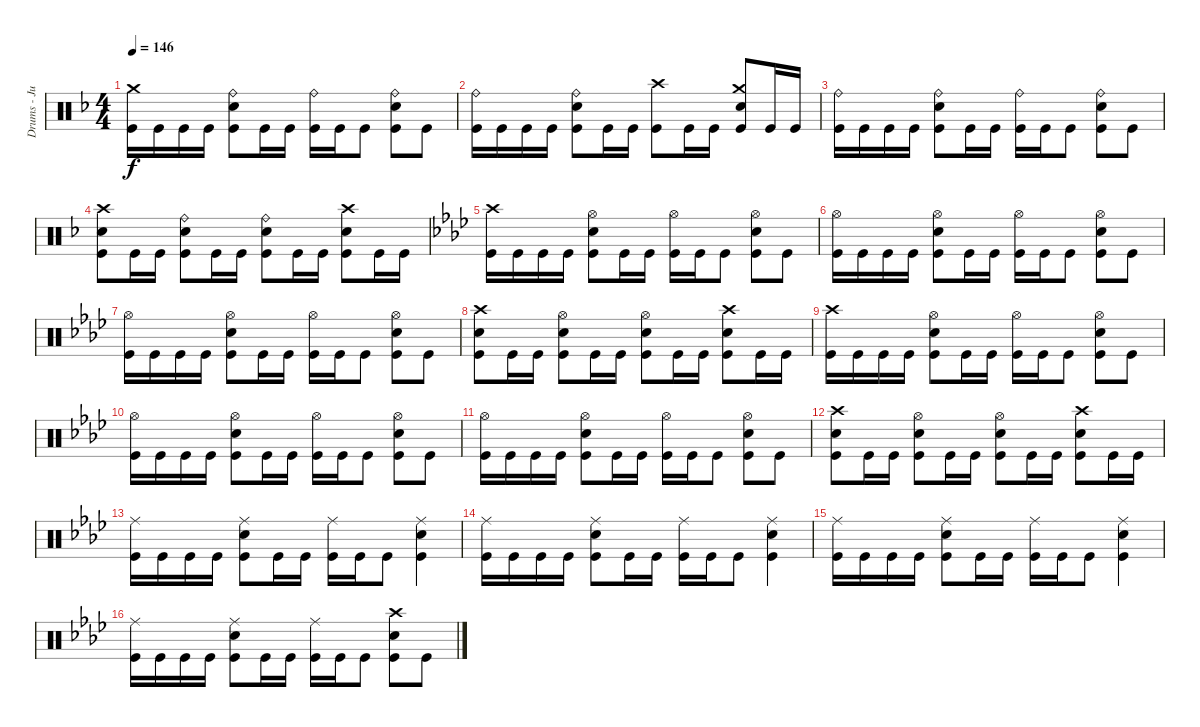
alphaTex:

\track ("Drums - Jukka" "Drums - Ju") {instrument percussion}
\staff {score}
\articulation defaults
\ts (4 4)
\tempo 146
\clef neutral
\ks dminor
("Kick (hit)" "Crash medium (hit)").16{dy f} "Kick (hit)".16 "Kick (hit)".16 "Kick (hit)".16 ("Kick (hit)" "Snare (hit) 2" "Ride (bell)").8 "Kick (hit)".16 "Kick (hit)".16 ("Kick (hit)" "Ride (bell)").16 "Kick (hit)".16 "Kick (hit)".8 ("Kick (hit)" "Snare (hit) 2" "Ride (bell)").8 "Kick (hit)".8 |
("Kick (hit)" "Ride (bell)").16 "Kick (hit)".16 "Kick (hit)".16 "Kick (hit)".16 ("Kick (hit)" "Snare (hit) 2" "Ride (bell)").8 "Kick (hit)".16 "Kick (hit)".16 ("Kick (hit)" "Crash high (hit)").8 "Kick (hit)".16 "Kick (hit)".16 ("Kick (hit)" "Snare (hit) 2" "Crash medium (hit)").8 "Kick (hit)".16 "Kick (hit)".16 |
("Kick (hit)" "Ride (bell)").16 "Kick (hit)".16 "Kick (hit)".16 "Kick (hit)".16 ("Kick (hit)" "Snare (hit) 2" "Ride (bell)").8 "Kick (hit)".16 "Kick (hit)".16 ("Kick (hit)" "Ride (bell)").16 "Kick (hit)".16 "Kick (hit)".8 ("Kick (hit)" "Snare (hit) 2" "Ride (bell)").8 "Kick (hit)".8 |
("Kick (hit)" "Crash high (hit)" "Snare (hit) 2").8 "Kick (hit)".16 "Kick (hit)".16 ("Kick (hit)" "Snare (hit) 2" "Ride (bell)").8 "Kick (hit)".16 "Kick (hit)".16 ("Kick (hit)" "Snare (hit) 2" "Ride (bell)").8 "Kick (hit)".16 "Kick (hit)".16 ("Kick (hit)" "Snare (hit) 2" "Crash high (hit)").8 "Kick (hit)".16 "Kick (hit)".16 |
\ks fminor
("Kick (hit)" "Crash high (hit)").16 "Kick (hit)".16 "Kick (hit)".16 "Kick (hit)".16 ("Kick (hit)" "Snare (hit) 2" "Hi-Hat (open)").8 "Kick (hit)".16 "Kick (hit)".16 ("Kick (hit)" "Hi-Hat (open)").16 "Kick (hit)".16 "Kick (hit)".8 ("Kick (hit)" "Snare (hit) 2" "Hi-Hat (open)").8 "Kick (hit)".8 |
("Kick (hit)" "Hi-Hat (open)").16 "Kick (hit)".16 "Kick (hit)".16 "Kick (hit)".16 ("Kick (hit)" "Snare (hit) 2" "Hi-Hat (open)").8 "Kick (hit)".16 "Kick (hit)".16 ("Kick (hit)" "Hi-Hat (open)").16 "Kick (hit)".16 "Kick (hit)".8 ("Kick (hit)" "Snare (hit) 2" "Hi-Hat (open)").8 "Kick (hit)".8 |
("Kick (hit)" "Hi-Hat (open)").16 "Kick (hit)".16 "Kick (hit)".16 "Kick (hit)".16 ("Kick (hit)" "Snare (hit) 2" "Hi-Hat (open)").8 "Kick (hit)".16 "Kick (hit)".16 ("Kick (hit)" "Hi-Hat (open)").16 "Kick (hit)".16 "Kick (hit)".8 ("Kick (hit)" "Snare (hit) 2" "Hi-Hat (open)").8 "Kick (hit)".8 |
("Kick (hit)" "Crash high (hit)" "Snare (hit) 2").8 "Kick (hit)".16 "Kick (hit)".16 ("Kick (hit)" "Snare (hit) 2" "Hi-Hat (open)").8 "Kick (hit)".16 "Kick (hit)".16 ("Kick (hit)" "Snare (hit) 2" "Hi-Hat (open)").8 "Kick (hit)".16 "Kick (hit)".16 ("Kick (hit)" "Snare (hit) 2" "Crash high (hit)").8 "Kick (hit)".16 "Kick (hit)".16 |
("Kick (hit)" "Crash high (hit)").16 "Kick (hit)".16 "Kick (hit)".16 "Kick (hit)".16 ("Kick (hit)" "Snare (hit) 2" "Hi-Hat (open)").8 "Kick (hit)".16 "Kick (hit)".16 ("Kick (hit)" "Hi-Hat (open)").16 "Kick (hit)".16 "Kick (hit)".8 ("Kick (hit)" "Snare (hit) 2" "Hi-Hat (open)").8 "Kick (hit)".8 |
("Kick (hit)" "Hi-Hat (open)").16 "Kick (hit)".16 "Kick (hit)".16 "Kick (hit)".16 ("Kick (hit)" "Snare (hit) 2" "Hi-Hat (open)").8 "Kick (hit)".16 "Kick (hit)".16 ("Kick (hit)" "Hi-Hat (open)").16 "Kick (hit)".16 "Kick (hit)".8 ("Kick (hit)" "Snare (hit) 2" "Hi-Hat (open)").8 "Kick (hit)".8 |
("Kick (hit)" "Hi-Hat (open)").16 "Kick (hit)".16 "Kick (hit)".16 "Kick (hit)".16 ("Kick (hit)" "Snare (hit) 2" "Hi-Hat (open)").8 "Kick (hit)".16 "Kick (hit)".16 ("Kick (hit)" "Hi-Hat (open)").16 "Kick (hit)".16 "Kick (hit)".8 ("Kick (hit)" "Snare (hit) 2" "Hi-Hat (open)").8 "Kick (hit)".8 |
("Kick (hit)" "Crash high (hit)" "Snare (hit) 2").8 "Kick (hit)".16 "Kick (hit)".16 ("Kick (hit)" "Snare (hit) 2" "Hi-Hat (open)").8 "Kick (hit)".16 "Kick (hit)".16 ("Kick (hit)" "Snare (hit) 2" "Hi-Hat (open)").8 "Kick (hit)".16 "Kick (hit)".16 ("Kick (hit)" "Snare (hit) 2" "Crash high (hit)").8 "Kick (hit)".16 "Kick (hit)".16 |
("Kick (hit)" "Ride (middle)").16 "Kick (hit)".16 "Kick (hit)".16 "Kick (hit)".16 ("Kick (hit)" "Snare (hit) 2" "Ride (middle)").8 "Kick (hit)".16 "Kick (hit)".16 ("Kick (hit)" "Ride (middle)").16 "Kick (hit)".16 "Kick (hit)".8 ("Kick (hit)" "Snare (hit) 2" "Ride (middle)").4 |
("Kick (hit)" "Ride (middle)").16 "Kick (hit)".16 "Kick (hit)".16 "Kick (hit)".16 ("Kick (hit)" "Snare (hit) 2" "Ride (middle)").8 "Kick (hit)".16 "Kick (hit)".16 ("Kick (hit)" "Ride (middle)").16 "Kick (hit)".16 "Kick (hit)".8 ("Kick (hit)" "Snare (hit) 2" "Ride (middle)").4 |
("Kick (hit)" "Ride (middle)").16 "Kick (hit)".16 "Kick (hit)".16 "Kick (hit)".16 ("Kick (hit)" "Snare (hit) 2" "Ride (middle)").8 "Kick (hit)".16 "Kick (hit)".16 ("Kick (hit)" "Ride (middle)").16 "Kick (hit)".16 "Kick (hit)".8 ("Kick (hit)" "Snare (hit) 2" "Ride (middle)").4 |
("Kick (hit)" "Ride (middle)").16 "Kick (hit)".16 "Kick (hit)".16 "Kick (hit)".16 ("Kick (hit)" "Snare (hit) 2" "Ride (middle)").8 "Kick (hit)".16 "Kick (hit)".16 ("Kick (hit)" "Ride (middle)").16 "Kick (hit)".16 "Kick (hit)".8 ("Kick (hit)" "Snare (hit) 2" "Crash high (hit)").8 "Kick (hit)".8
